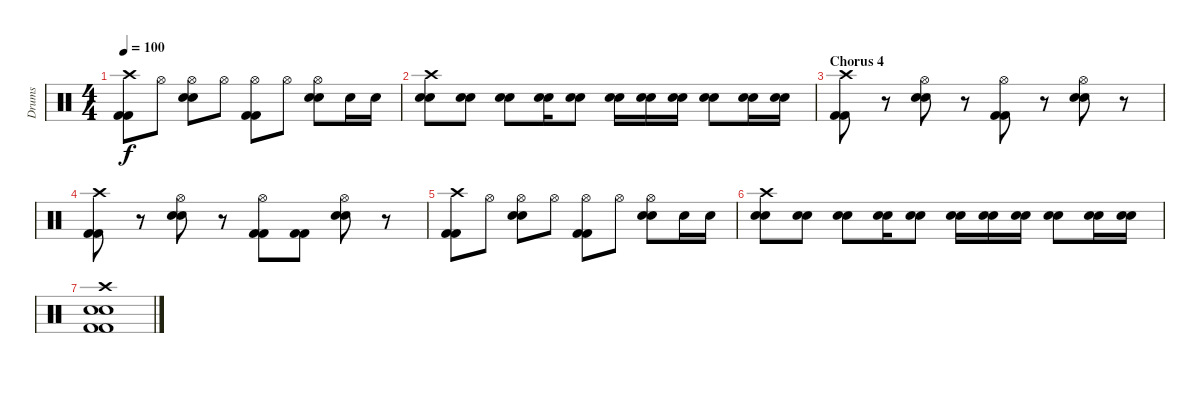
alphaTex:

\track ("Drums" "Drums") {instrument percussion}
\staff {score}
\articulation defaults
\ts (4 4)
\tempo 100
\clef neutral
\ks c
("Crash high (hit)" "Kick (hit) 2" "Kick (hit) 2").8{dy f} "Hi-Hat (open)".8 ("Hi-Hat (open)" "Electric Snare (hit)" "Electric Snare (hit)").8 "Hi-Hat (open)".8 ("Hi-Hat (open)" "Kick (hit) 2" "Kick (hit) 2").8 "Hi-Hat (open)".8 ("Hi-Hat (open)" "Electric Snare (hit)" "Electric Snare (hit)").8 "Electric Snare (hit)".16 "Electric Snare (hit)".16 |
("Crash high (hit)" "Electric Snare (hit)" "Electric Snare (hit)").8 ("Electric Snare (hit)" "Electric Snare (hit)").8 ("Electric Snare (hit)" "Electric Snare (hit)").8 ("Electric Snare (hit)" "Electric Snare (hit)").16 ("Electric Snare (hit)" "Electric Snare (hit)").8 ("Electric Snare (hit)" "Electric Snare (hit)").16 ("Electric Snare (hit)" "Electric Snare (hit)").16 ("Electric Snare (hit)" "Electric Snare (hit)").16 ("Electric Snare (hit)" "Electric Snare (hit)").8 ("Electric Snare (hit)" "Electric Snare (hit)").16 ("Electric Snare (hit)" "Electric Snare (hit)").16 |
\section ("" "Chorus 4")
("Crash high (hit)" "Kick (hit) 2" "Kick (hit) 2").8 r.8 ("Hi-Hat (open)" "Electric Snare (hit)" "Electric Snare (hit)").8 r.8 ("Hi-Hat (open)" "Kick (hit) 2" "Kick (hit) 2").8 r.8 ("Hi-Hat (open)" "Electric Snare (hit)" "Electric Snare (hit)").8 r.8 |
("Crash high (hit)" "Kick (hit) 2" "Kick (hit) 2").8 r.8 ("Hi-Hat (open)" "Electric Snare (hit)" "Electric Snare (hit)").8 r.8 ("Hi-Hat (open)" "Kick (hit) 2" "Kick (hit) 2").8 ("Kick (hit) 2" "Kick (hit) 2").8 ("Hi-Hat (open)" "Electric Snare (hit)" "Electric Snare (hit)").8 r.8 |
("Crash high (hit)" "Kick (hit) 2" "Kick (hit) 2").8 "Hi-Hat (open)".8 ("Hi-Hat (open)" "Electric Snare (hit)" "Electric Snare (hit)").8 "Hi-Hat (open)".8 ("Hi-Hat (open)" "Kick (hit) 2" "Kick (hit) 2").8 "Hi-Hat (open)".8 ("Hi-Hat (open)" "Electric Snare (hit)" "Electric Snare (hit)").8 "Electric Snare (hit)".16 "Electric Snare (hit)".16 |
("Crash high (hit)" "Electric Snare (hit)" "Electric Snare (hit)").8 ("Electric Snare (hit)" "Electric Snare (hit)").8 ("Electric Snare (hit)" "Electric Snare (hit)").8 ("Electric Snare (hit)" "Electric Snare (hit)").16 ("Electric Snare (hit)" "Electric Snare (hit)").8 ("Electric Snare (hit)" "Electric Snare (hit)").16 ("Electric Snare (hit)" "Electric Snare (hit)").16 ("Electric Snare (hit)" "Electric Snare (hit)").16 ("Electric Snare (hit)" "Electric Snare (hit)").8 ("Electric Snare (hit)" "Electric Snare (hit)").16 ("Electric Snare (hit)" "Electric Snare (hit)").16 |
("Crash high (hit)" "Electric Snare (hit)" "Electric Snare (hit)" "Kick (hit) 2" "Kick (hit) 2").1
